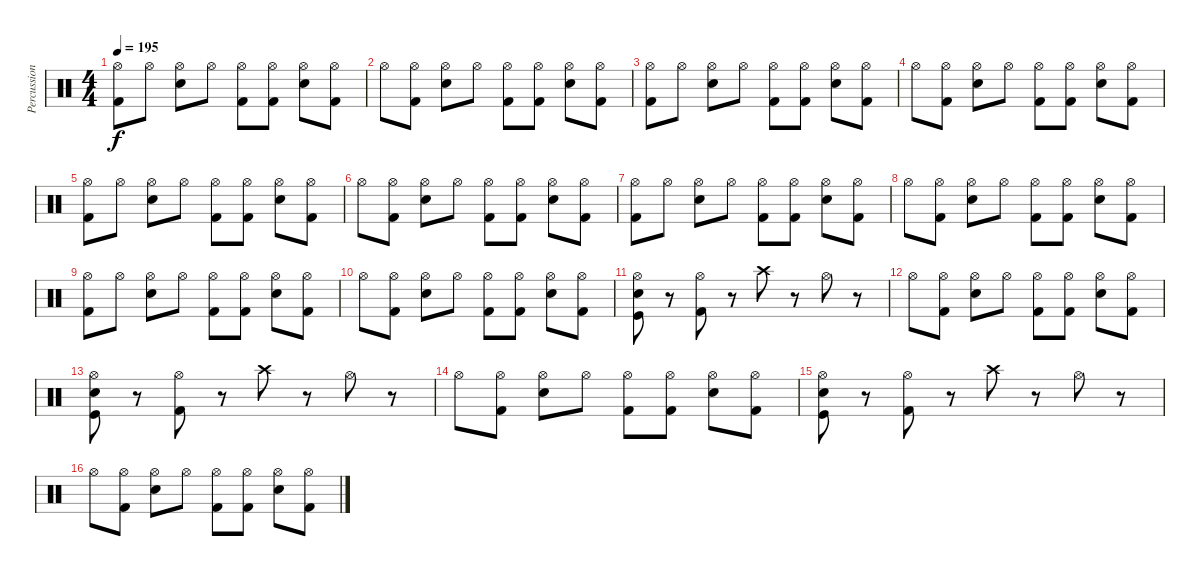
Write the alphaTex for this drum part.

\track ("Percussion" "Percussion") {instrument percussion}
\staff {score}
\articulation defaults
\ts (4 4)
\tempo 195
\clef neutral
\ks c
("Hi-Hat (open)" "Kick (hit) 2").8{dy f} "Hi-Hat (open)".8 ("Hi-Hat (open)" "Electric Snare (hit)").8 "Hi-Hat (open)".8 ("Hi-Hat (open)" "Kick (hit) 2").8 ("Hi-Hat (open)" "Kick (hit) 2").8 ("Hi-Hat (open)" "Electric Snare (hit)").8 ("Hi-Hat (open)" "Kick (hit) 2").8 |
"Hi-Hat (open)".8 ("Hi-Hat (open)" "Kick (hit) 2").8 ("Hi-Hat (open)" "Electric Snare (hit)").8 "Hi-Hat (open)".8 ("Hi-Hat (open)" "Kick (hit) 2").8 ("Hi-Hat (open)" "Kick (hit) 2").8 ("Hi-Hat (open)" "Electric Snare (hit)").8 ("Hi-Hat (open)" "Kick (hit) 2").8 |
("Hi-Hat (open)" "Kick (hit) 2").8 "Hi-Hat (open)".8 ("Hi-Hat (open)" "Electric Snare (hit)").8 "Hi-Hat (open)".8 ("Hi-Hat (open)" "Kick (hit) 2").8 ("Hi-Hat (open)" "Kick (hit) 2").8 ("Hi-Hat (open)" "Electric Snare (hit)").8 ("Hi-Hat (open)" "Kick (hit) 2").8 |
"Hi-Hat (open)".8 ("Hi-Hat (open)" "Kick (hit) 2").8 ("Hi-Hat (open)" "Electric Snare (hit)").8 "Hi-Hat (open)".8 ("Hi-Hat (open)" "Kick (hit) 2").8 ("Hi-Hat (open)" "Kick (hit) 2").8 ("Hi-Hat (open)" "Electric Snare (hit)").8 ("Hi-Hat (open)" "Kick (hit) 2").8 |
("Hi-Hat (open)" "Kick (hit) 2").8 "Hi-Hat (open)".8 ("Hi-Hat (open)" "Electric Snare (hit)").8 "Hi-Hat (open)".8 ("Hi-Hat (open)" "Kick (hit) 2").8 ("Hi-Hat (open)" "Kick (hit) 2").8 ("Hi-Hat (open)" "Electric Snare (hit)").8 ("Hi-Hat (open)" "Kick (hit) 2").8 |
"Hi-Hat (open)".8 ("Hi-Hat (open)" "Kick (hit) 2").8 ("Hi-Hat (open)" "Electric Snare (hit)").8 "Hi-Hat (open)".8 ("Hi-Hat (open)" "Kick (hit) 2").8 ("Hi-Hat (open)" "Kick (hit) 2").8 ("Hi-Hat (open)" "Electric Snare (hit)").8 ("Hi-Hat (open)" "Kick (hit) 2").8 |
("Hi-Hat (open)" "Kick (hit) 2").8 "Hi-Hat (open)".8 ("Hi-Hat (open)" "Electric Snare (hit)").8 "Hi-Hat (open)".8 ("Hi-Hat (open)" "Kick (hit) 2").8 ("Hi-Hat (open)" "Kick (hit) 2").8 ("Hi-Hat (open)" "Electric Snare (hit)").8 ("Hi-Hat (open)" "Kick (hit) 2").8 |
"Hi-Hat (open)".8 ("Hi-Hat (open)" "Kick (hit) 2").8 ("Hi-Hat (open)" "Electric Snare (hit)").8 "Hi-Hat (open)".8 ("Hi-Hat (open)" "Kick (hit) 2").8 ("Hi-Hat (open)" "Kick (hit) 2").8 ("Hi-Hat (open)" "Electric Snare (hit)").8 ("Hi-Hat (open)" "Kick (hit) 2").8 |
("Hi-Hat (open)" "Kick (hit) 2").8 "Hi-Hat (open)".8 ("Hi-Hat (open)" "Electric Snare (hit)").8 "Hi-Hat (open)".8 ("Hi-Hat (open)" "Kick (hit) 2").8 ("Hi-Hat (open)" "Kick (hit) 2").8 ("Hi-Hat (open)" "Electric Snare (hit)").8 ("Hi-Hat (open)" "Kick (hit) 2").8 |
"Hi-Hat (open)".8 ("Hi-Hat (open)" "Kick (hit) 2").8 ("Hi-Hat (open)" "Electric Snare (hit)").8 "Hi-Hat (open)".8 ("Hi-Hat (open)" "Kick (hit) 2").8 ("Hi-Hat (open)" "Kick (hit) 2").8 ("Hi-Hat (open)" "Electric Snare (hit)").8 ("Hi-Hat (open)" "Kick (hit) 2").8 |
("Hi-Hat (open)" "Kick (hit)" "Electric Snare (hit)").8 r.8 ("Hi-Hat (open)" "Kick (hit) 2").8 r.8 "Crash high (hit)".8 r.8 "Hi-Hat (open)".8 r.8 |
"Hi-Hat (open)".8 ("Hi-Hat (open)" "Kick (hit) 2").8 ("Hi-Hat (open)" "Electric Snare (hit)").8 "Hi-Hat (open)".8 ("Hi-Hat (open)" "Kick (hit) 2").8 ("Hi-Hat (open)" "Kick (hit) 2").8 ("Hi-Hat (open)" "Electric Snare (hit)").8 ("Hi-Hat (open)" "Kick (hit) 2").8 |
("Hi-Hat (open)" "Kick (hit)" "Electric Snare (hit)").8 r.8 ("Hi-Hat (open)" "Kick (hit) 2").8 r.8 "Crash high (hit)".8 r.8 "Hi-Hat (open)".8 r.8 |
"Hi-Hat (open)".8 ("Hi-Hat (open)" "Kick (hit) 2").8 ("Hi-Hat (open)" "Electric Snare (hit)").8 "Hi-Hat (open)".8 ("Hi-Hat (open)" "Kick (hit) 2").8 ("Hi-Hat (open)" "Kick (hit) 2").8 ("Hi-Hat (open)" "Electric Snare (hit)").8 ("Hi-Hat (open)" "Kick (hit) 2").8 |
("Hi-Hat (open)" "Kick (hit)" "Electric Snare (hit)").8 r.8 ("Hi-Hat (open)" "Kick (hit) 2").8 r.8 "Crash high (hit)".8 r.8 "Hi-Hat (open)".8 r.8 |
"Hi-Hat (open)".8 ("Hi-Hat (open)" "Kick (hit) 2").8 ("Hi-Hat (open)" "Electric Snare (hit)").8 "Hi-Hat (open)".8 ("Hi-Hat (open)" "Kick (hit) 2").8 ("Hi-Hat (open)" "Kick (hit) 2").8 ("Hi-Hat (open)" "Electric Snare (hit)").8 ("Hi-Hat (open)" "Kick (hit) 2").8
